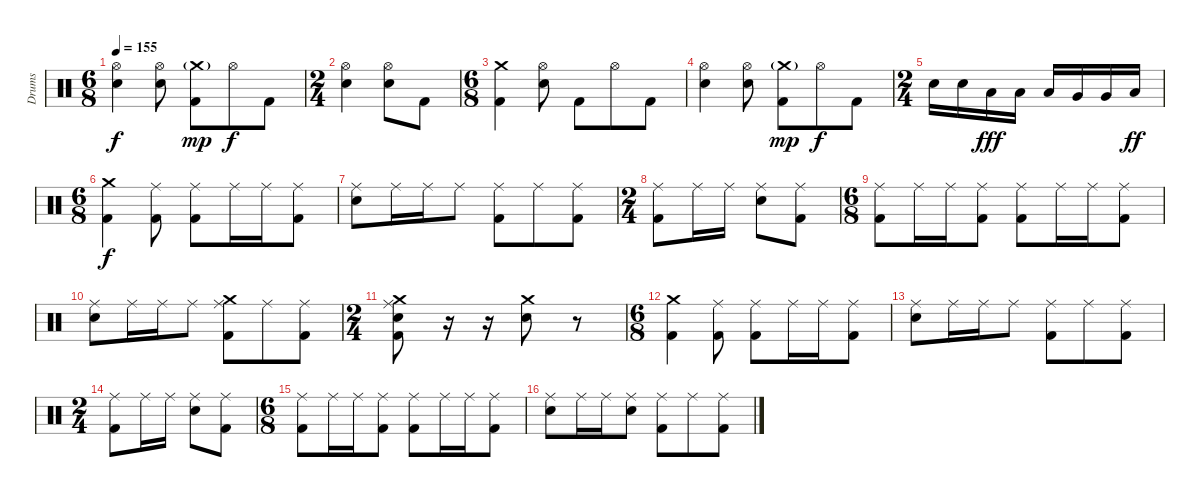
\track ("Drums" "Drums") {instrument percussion}
\staff {score}
\articulation defaults
\ts (6 8)
\tempo 155
\clef neutral
\ks c
("Hi-Hat (open)" "Electric Snare (hit)").4{dy f} ("Hi-Hat (open)" "Electric Snare (hit)").8 ("Crash medium (hit)"{g} "Kick (hit) 2").8{dy mp} "Hi-Hat (open)".8{dy f} "Kick (hit) 2".8 |
\ts (2 4)
("Hi-Hat (open)" "Electric Snare (hit)").4 ("Hi-Hat (open)" "Electric Snare (hit)").8 "Kick (hit) 2".8 |
\ts (6 8)
("Crash medium (hit)" "Kick (hit) 2").4 ("Hi-Hat (open)" "Electric Snare (hit)").8 "Kick (hit) 2".8 "Hi-Hat (open)".8 "Kick (hit) 2".8 |
("Hi-Hat (open)" "Electric Snare (hit)").4 ("Hi-Hat (open)" "Electric Snare (hit)").8 ("Crash medium (hit)"{g} "Kick (hit) 2").8{dy mp} "Hi-Hat (open)".8{dy f} "Kick (hit) 2".8 |
\ts (2 4)
"Electric Snare (hit)".16 "Electric Snare (hit)".16 "Low Tom (hit)".16{dy fff} "Low Tom (hit)".16 "Low Tom (hit)".16 "Very Low Tom (hit)".16 "Very Low Tom (hit)".16 "Low Floor Tom (hit)".16{dy ff} |
\ts (6 8)
("Crash medium (hit)" "Kick (hit) 2").4{dy f} ("Ride (middle)" "Kick (hit) 2").8 ("Ride (middle)" "Kick (hit) 2").8 "Ride (middle)".16 "Ride (middle)".16 ("Ride (middle)" "Kick (hit) 2").8 |
("Ride (middle)" "Electric Snare (hit)").8 "Ride (middle)".16 "Ride (middle)".16 "Ride (middle)".8 ("Ride (middle)" "Kick (hit) 2").8 "Ride (middle)".8 ("Ride (middle)" "Kick (hit) 2").8 |
\ts (2 4)
("Ride (middle)" "Kick (hit) 2").8 "Ride (middle)".16 "Ride (middle)".16 ("Ride (middle)" "Electric Snare (hit)").8 ("Ride (middle)" "Kick (hit) 2").8 |
\ts (6 8)
("Ride (middle)" "Kick (hit) 2").8 "Ride (middle)".16 "Ride (middle)".16 ("Ride (middle)" "Kick (hit) 2").8 ("Ride (middle)" "Kick (hit) 2").8 "Ride (middle)".16 "Ride (middle)".16 ("Ride (middle)" "Kick (hit) 2").8 |
("Ride (middle)" "Electric Snare (hit)").8 "Ride (middle)".16 "Ride (middle)".16 "Ride (middle)".8 ("Crash medium (hit)" "Ride (middle)" "Kick (hit) 2").8 "Ride (middle)".8 ("Ride (middle)" "Kick (hit) 2").8 |
\ts (2 4)
("Crash medium (hit)" "Ride (middle)" "Electric Snare (hit)" "Kick (hit) 2").8 r.16 r.16 ("Crash medium (hit)" "Electric Snare (hit)").8 r.8 |
\ts (6 8)
("Crash medium (hit)" "Kick (hit) 2").4 ("Ride (middle)" "Kick (hit) 2").8 ("Ride (middle)" "Kick (hit) 2").8 "Ride (middle)".16 "Ride (middle)".16 ("Ride (middle)" "Kick (hit) 2").8 |
("Ride (middle)" "Electric Snare (hit)").8 "Ride (middle)".16 "Ride (middle)".16 "Ride (middle)".8 ("Ride (middle)" "Kick (hit) 2").8 "Ride (middle)".8 ("Ride (middle)" "Kick (hit) 2").8 |
\ts (2 4)
("Ride (middle)" "Kick (hit) 2").8 "Ride (middle)".16 "Ride (middle)".16 ("Ride (middle)" "Electric Snare (hit)").8 ("Ride (middle)" "Kick (hit) 2").8 |
\ts (6 8)
("Ride (middle)" "Kick (hit) 2").8 "Ride (middle)".16 "Ride (middle)".16 ("Ride (middle)" "Kick (hit) 2").8 ("Ride (middle)" "Kick (hit) 2").8 "Ride (middle)".16 "Ride (middle)".16 ("Ride (middle)" "Kick (hit) 2").8 |
("Ride (middle)" "Electric Snare (hit)").8 "Ride (middle)".16 "Ride (middle)".16 ("Ride (middle)" "Electric Snare (hit)").8 ("Ride (middle)" "Kick (hit) 2").8 "Ride (middle)".8 ("Ride (middle)" "Kick (hit) 2").8
